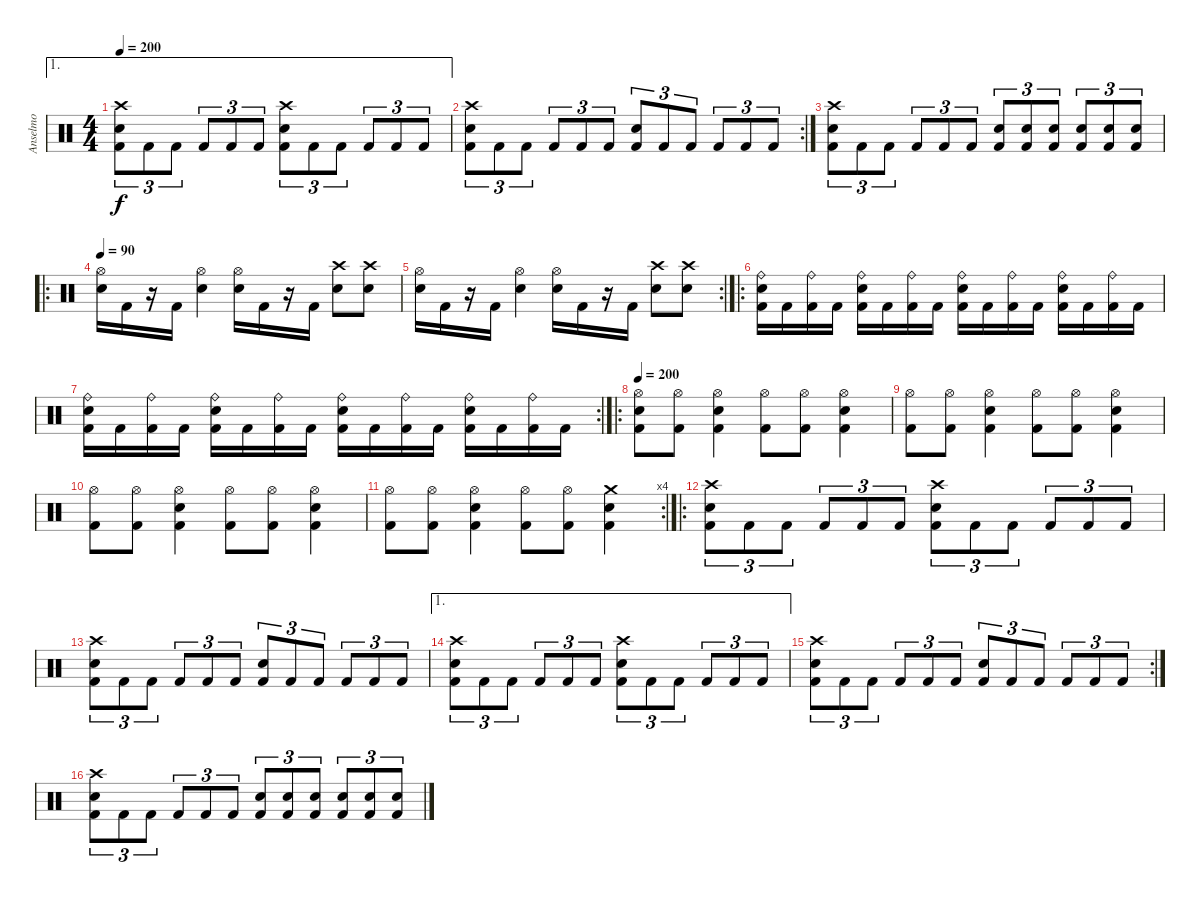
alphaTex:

\track ("Anselmo" "Anselmo") {instrument percussion}
\staff {score}
\articulation defaults
\ae 1
\ts (4 4)
\tempo 200
\clef neutral
\ks c
("Crash high (hit)" "Electric Snare (hit)" "Kick (hit) 2").8{tu (3 2) dy f} "Kick (hit) 2".8{tu (3 2)} "Kick (hit) 2".8{tu (3 2)} "Kick (hit) 2".8{tu (3 2)} "Kick (hit) 2".8{tu (3 2)} "Kick (hit) 2".8{tu (3 2)} ("Crash high (hit)" "Electric Snare (hit)" "Kick (hit) 2").8{tu (3 2)} "Kick (hit) 2".8{tu (3 2)} "Kick (hit) 2".8{tu (3 2)} "Kick (hit) 2".8{tu (3 2)} "Kick (hit) 2".8{tu (3 2)} "Kick (hit) 2".8{tu (3 2)} |
\rc 2
("Crash high (hit)" "Electric Snare (hit)" "Kick (hit) 2").8{tu (3 2)} "Kick (hit) 2".8{tu (3 2)} "Kick (hit) 2".8{tu (3 2)} "Kick (hit) 2".8{tu (3 2)} "Kick (hit) 2".8{tu (3 2)} "Kick (hit) 2".8{tu (3 2)} ("Electric Snare (hit)" "Kick (hit) 2").8{tu (3 2)} "Kick (hit) 2".8{tu (3 2)} "Kick (hit) 2".8{tu (3 2)} "Kick (hit) 2".8{tu (3 2)} "Kick (hit) 2".8{tu (3 2)} "Kick (hit) 2".8{tu (3 2)} |
("Crash high (hit)" "Electric Snare (hit)" "Kick (hit) 2").8{tu (3 2)} "Kick (hit) 2".8{tu (3 2)} "Kick (hit) 2".8{tu (3 2)} "Kick (hit) 2".8{tu (3 2)} "Kick (hit) 2".8{tu (3 2)} "Kick (hit) 2".8{tu (3 2)} ("Electric Snare (hit)" "Kick (hit) 2").8{tu (3 2)} ("Electric Snare (hit)" "Kick (hit) 2").8{tu (3 2)} ("Electric Snare (hit)" "Kick (hit) 2").8{tu (3 2)} ("Electric Snare (hit)" "Kick (hit) 2").8{tu (3 2)} ("Electric Snare (hit)" "Kick (hit) 2").8{tu (3 2)} ("Electric Snare (hit)" "Kick (hit) 2").8{tu (3 2)} |
\ro
\tempo 90
("Hi-Hat (open)" "Electric Snare (hit)").16 "Kick (hit) 2".16 r.16 "Kick (hit) 2".16 ("Hi-Hat (open)" "Electric Snare (hit)").4 ("Hi-Hat (open)" "Electric Snare (hit)").16 "Kick (hit) 2".16 r.16 "Kick (hit) 2".16 ("Crash high (hit)" "Electric Snare (hit)").8 ("Crash high (hit)" "Electric Snare (hit)").8 |
\rc 2
("Hi-Hat (open)" "Electric Snare (hit)").16 "Kick (hit) 2".16 r.16 "Kick (hit) 2".16 ("Hi-Hat (open)" "Electric Snare (hit)").4 ("Hi-Hat (open)" "Electric Snare (hit)").16 "Kick (hit) 2".16 r.16 "Kick (hit) 2".16 ("Crash high (hit)" "Electric Snare (hit)").8 ("Crash high (hit)" "Electric Snare (hit)").8 |
\ro
("Ride (bell)" "Electric Snare (hit)" "Kick (hit) 2").16 "Kick (hit) 2".16 ("Ride (bell)" "Kick (hit) 2").16 "Kick (hit) 2".16 ("Ride (bell)" "Electric Snare (hit)" "Kick (hit) 2").16 "Kick (hit) 2".16 ("Ride (bell)" "Kick (hit) 2").16 "Kick (hit) 2".16 ("Ride (bell)" "Electric Snare (hit)" "Kick (hit) 2").16 "Kick (hit) 2".16 ("Ride (bell)" "Kick (hit) 2").16 "Kick (hit) 2".16 ("Ride (bell)" "Electric Snare (hit)" "Kick (hit) 2").16 "Kick (hit) 2".16 ("Ride (bell)" "Kick (hit) 2").16 "Kick (hit) 2".16 |
\rc 2
("Ride (bell)" "Electric Snare (hit)" "Kick (hit) 2").16 "Kick (hit) 2".16 ("Ride (bell)" "Kick (hit) 2").16 "Kick (hit) 2".16 ("Ride (bell)" "Electric Snare (hit)" "Kick (hit) 2").16 "Kick (hit) 2".16 ("Ride (bell)" "Kick (hit) 2").16 "Kick (hit) 2".16 ("Ride (bell)" "Electric Snare (hit)" "Kick (hit) 2").16 "Kick (hit) 2".16 ("Ride (bell)" "Kick (hit) 2").16 "Kick (hit) 2".16 ("Ride (bell)" "Electric Snare (hit)" "Kick (hit) 2").16 "Kick (hit) 2".16 ("Ride (bell)" "Kick (hit) 2").16 "Kick (hit) 2".16 |
\ro
\tempo 200
("Hi-Hat (open)" "Kick (hit) 2" "Electric Snare (hit)").8 ("Hi-Hat (open)" "Kick (hit) 2").8 ("Hi-Hat (open)" "Kick (hit) 2" "Electric Snare (hit)").4 ("Hi-Hat (open)" "Kick (hit) 2").8 ("Hi-Hat (open)" "Kick (hit) 2").8 ("Hi-Hat (open)" "Kick (hit) 2" "Electric Snare (hit)").4 |
("Hi-Hat (open)" "Kick (hit) 2").8 ("Hi-Hat (open)" "Kick (hit) 2").8 ("Hi-Hat (open)" "Kick (hit) 2" "Electric Snare (hit)").4 ("Hi-Hat (open)" "Kick (hit) 2").8 ("Hi-Hat (open)" "Kick (hit) 2").8 ("Hi-Hat (open)" "Kick (hit) 2" "Electric Snare (hit)").4 |
("Hi-Hat (open)" "Kick (hit) 2").8 ("Hi-Hat (open)" "Kick (hit) 2").8 ("Hi-Hat (open)" "Kick (hit) 2" "Electric Snare (hit)").4 ("Hi-Hat (open)" "Kick (hit) 2").8 ("Hi-Hat (open)" "Kick (hit) 2").8 ("Hi-Hat (open)" "Kick (hit) 2" "Electric Snare (hit)").4 |
\rc 4
("Hi-Hat (open)" "Kick (hit) 2").8 ("Hi-Hat (open)" "Kick (hit) 2").8 ("Hi-Hat (open)" "Kick (hit) 2" "Electric Snare (hit)").4 ("Hi-Hat (open)" "Kick (hit) 2").8 ("Hi-Hat (open)" "Kick (hit) 2").8 ("Crash medium (hit)" "Kick (hit) 2" "Electric Snare (hit)").4 |
\ro
("Crash high (hit)" "Electric Snare (hit)" "Kick (hit) 2").8{tu (3 2)} "Kick (hit) 2".8{tu (3 2)} "Kick (hit) 2".8{tu (3 2)} "Kick (hit) 2".8{tu (3 2)} "Kick (hit) 2".8{tu (3 2)} "Kick (hit) 2".8{tu (3 2)} ("Crash high (hit)" "Electric Snare (hit)" "Kick (hit) 2").8{tu (3 2)} "Kick (hit) 2".8{tu (3 2)} "Kick (hit) 2".8{tu (3 2)} "Kick (hit) 2".8{tu (3 2)} "Kick (hit) 2".8{tu (3 2)} "Kick (hit) 2".8{tu (3 2)} |
("Crash high (hit)" "Electric Snare (hit)" "Kick (hit) 2").8{tu (3 2)} "Kick (hit) 2".8{tu (3 2)} "Kick (hit) 2".8{tu (3 2)} "Kick (hit) 2".8{tu (3 2)} "Kick (hit) 2".8{tu (3 2)} "Kick (hit) 2".8{tu (3 2)} ("Electric Snare (hit)" "Kick (hit) 2").8{tu (3 2)} "Kick (hit) 2".8{tu (3 2)} "Kick (hit) 2".8{tu (3 2)} "Kick (hit) 2".8{tu (3 2)} "Kick (hit) 2".8{tu (3 2)} "Kick (hit) 2".8{tu (3 2)} |
\ae 1
("Crash high (hit)" "Electric Snare (hit)" "Kick (hit) 2").8{tu (3 2)} "Kick (hit) 2".8{tu (3 2)} "Kick (hit) 2".8{tu (3 2)} "Kick (hit) 2".8{tu (3 2)} "Kick (hit) 2".8{tu (3 2)} "Kick (hit) 2".8{tu (3 2)} ("Crash high (hit)" "Electric Snare (hit)" "Kick (hit) 2").8{tu (3 2)} "Kick (hit) 2".8{tu (3 2)} "Kick (hit) 2".8{tu (3 2)} "Kick (hit) 2".8{tu (3 2)} "Kick (hit) 2".8{tu (3 2)} "Kick (hit) 2".8{tu (3 2)} |
\rc 2
("Crash high (hit)" "Electric Snare (hit)" "Kick (hit) 2").8{tu (3 2)} "Kick (hit) 2".8{tu (3 2)} "Kick (hit) 2".8{tu (3 2)} "Kick (hit) 2".8{tu (3 2)} "Kick (hit) 2".8{tu (3 2)} "Kick (hit) 2".8{tu (3 2)} ("Electric Snare (hit)" "Kick (hit) 2").8{tu (3 2)} "Kick (hit) 2".8{tu (3 2)} "Kick (hit) 2".8{tu (3 2)} "Kick (hit) 2".8{tu (3 2)} "Kick (hit) 2".8{tu (3 2)} "Kick (hit) 2".8{tu (3 2)} |
("Crash high (hit)" "Electric Snare (hit)" "Kick (hit) 2").8{tu (3 2)} "Kick (hit) 2".8{tu (3 2)} "Kick (hit) 2".8{tu (3 2)} "Kick (hit) 2".8{tu (3 2)} "Kick (hit) 2".8{tu (3 2)} "Kick (hit) 2".8{tu (3 2)} ("Electric Snare (hit)" "Kick (hit) 2").8{tu (3 2)} ("Electric Snare (hit)" "Kick (hit) 2").8{tu (3 2)} ("Electric Snare (hit)" "Kick (hit) 2").8{tu (3 2)} ("Electric Snare (hit)" "Kick (hit) 2").8{tu (3 2)} ("Electric Snare (hit)" "Kick (hit) 2").8{tu (3 2)} ("Electric Snare (hit)" "Kick (hit) 2").8{tu (3 2)}
